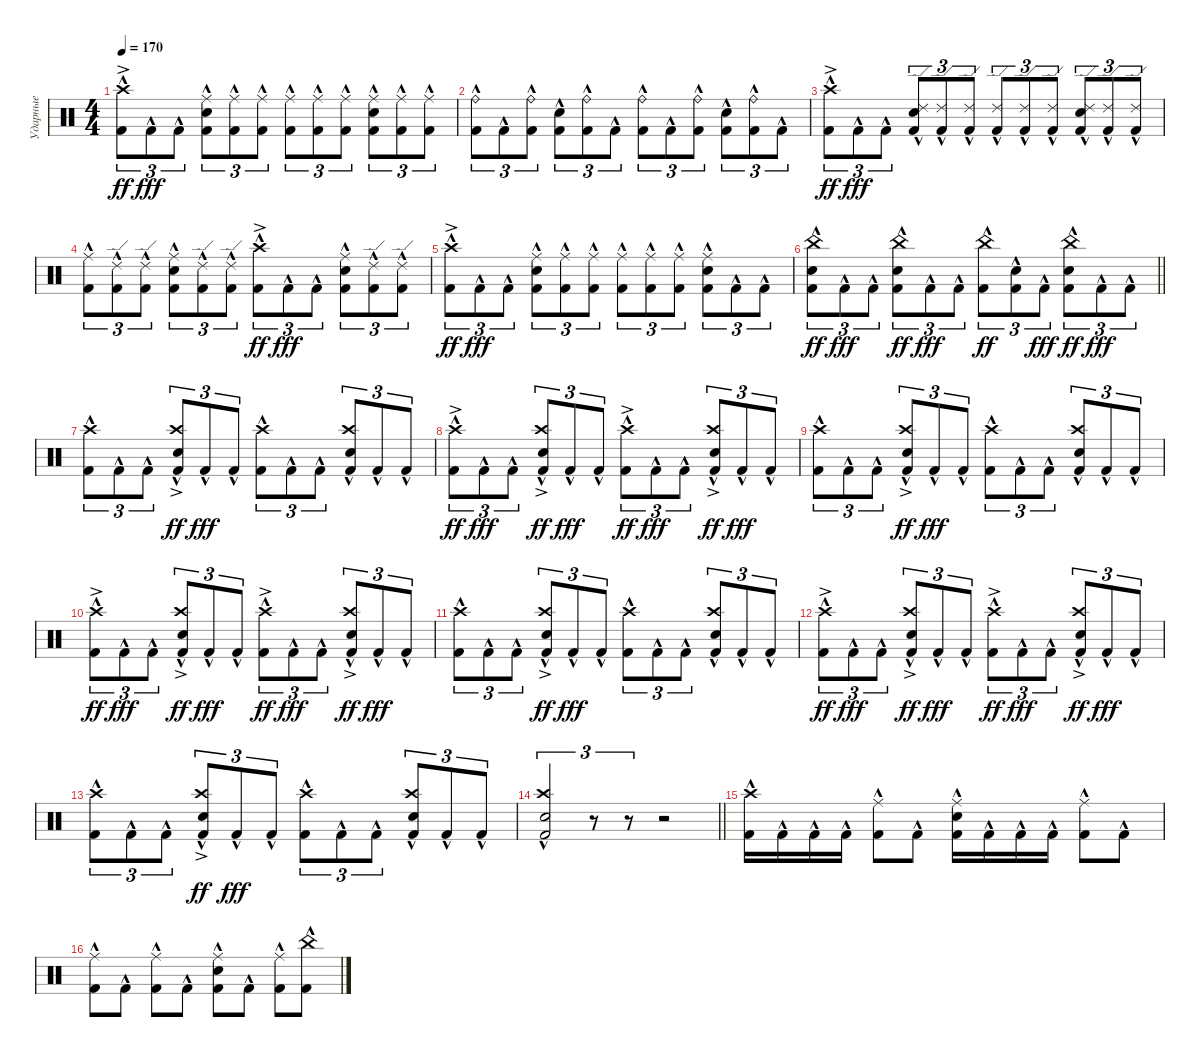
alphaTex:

\track ("Ударные" "Ударные") {instrument percussion}
\staff {score}
\articulation defaults
\ts (4 4)
\tempo 170
\clef neutral
\ks c
("Kick (hit) 2"{hac} "Crash high (hit)"{ac}).8{tu (3 2) dy ff} "Kick (hit) 2"{hac}.8{tu (3 2) dy fff} "Kick (hit) 2"{hac}.8{tu (3 2)} ("Kick (hit) 2"{hac} "Snare (hit) 2" "Ride (middle)"{hac}).8{tu (3 2)} ("Kick (hit) 2"{hac} "Ride (middle)"{hac}).8{tu (3 2)} ("Kick (hit) 2"{hac} "Ride (middle)"{hac}).8{tu (3 2)} ("Kick (hit) 2"{hac} "Ride (middle)"{hac}).8{tu (3 2)} ("Kick (hit) 2"{hac} "Ride (middle)"{hac}).8{tu (3 2)} ("Kick (hit) 2"{hac} "Ride (middle)"{hac}).8{tu (3 2)} ("Kick (hit) 2"{hac} "Snare (hit) 2" "Ride (middle)"{hac}).8{tu (3 2)} ("Kick (hit) 2"{hac} "Ride (middle)"{hac}).8{tu (3 2)} ("Kick (hit) 2"{hac} "Ride (middle)"{hac}).8{tu (3 2)} |
("Kick (hit) 2"{hac} "Ride (bell)"{hac}).8{tu (3 2)} "Kick (hit) 2"{hac}.8{tu (3 2)} ("Kick (hit) 2"{hac} "Ride (bell)"{hac}).8{tu (3 2)} ("Kick (hit) 2"{hac} "Snare (hit) 2").8{tu (3 2)} ("Kick (hit) 2"{hac} "Ride (bell)"{hac}).8{tu (3 2)} "Kick (hit) 2"{hac}.8{tu (3 2)} ("Kick (hit) 2"{hac} "Ride (bell)"{hac}).8{tu (3 2)} "Kick (hit) 2"{hac}.8{tu (3 2)} ("Kick (hit) 2"{hac} "Ride (bell)"{hac}).8{tu (3 2)} ("Kick (hit) 2"{hac} "Snare (hit) 2").8{tu (3 2)} ("Kick (hit) 2"{hac} "Ride (bell)"{hac}).8{tu (3 2)} "Kick (hit) 2"{hac}.8{tu (3 2)} |
("Kick (hit) 2"{hac} "Crash high (hit)"{ac}).8{tu (3 2) dy ff} "Kick (hit) 2"{hac}.8{tu (3 2) dy fff} "Kick (hit) 2"{hac}.8{tu (3 2)} ("Kick (hit) 2"{hac} "Snare (hit) 2" "Ride (edge) 2"{hac}).8{tu (3 2)} ("Kick (hit) 2"{hac} "Ride (edge) 2"{hac}).8{tu (3 2)} ("Kick (hit) 2"{hac} "Ride (edge) 2"{hac}).8{tu (3 2)} ("Kick (hit) 2"{hac} "Ride (edge) 2"{hac}).8{tu (3 2)} ("Kick (hit) 2"{hac} "Ride (edge) 2"{hac}).8{tu (3 2)} ("Kick (hit) 2"{hac} "Ride (edge) 2"{hac}).8{tu (3 2)} ("Kick (hit) 2"{hac} "Snare (hit) 2" "Ride (edge) 2"{hac}).8{tu (3 2)} ("Kick (hit) 2"{hac} "Ride (edge) 2"{hac}).8{tu (3 2)} ("Kick (hit) 2"{hac} "Ride (edge) 2"{hac}).8{tu (3 2)} |
("Kick (hit) 2"{hac} "Ride (middle)"{hac}).8{tu (3 2)} ("Kick (hit) 2"{hac} "Ride (edge) 2"{hac}).8{tu (3 2)} ("Kick (hit) 2"{hac} "Ride (edge) 2"{hac}).8{tu (3 2)} ("Kick (hit) 2"{hac} "Snare (hit) 2" "Ride (middle)"{hac}).8{tu (3 2)} ("Kick (hit) 2"{hac} "Ride (edge) 2"{hac}).8{tu (3 2)} ("Kick (hit) 2"{hac} "Ride (edge) 2"{hac}).8{tu (3 2)} ("Kick (hit) 2"{hac} "Crash high (hit)"{ac}).8{tu (3 2) dy ff} "Kick (hit) 2"{hac}.8{tu (3 2) dy fff} "Kick (hit) 2"{hac}.8{tu (3 2)} ("Kick (hit) 2"{hac} "Snare (hit) 2" "Ride (middle)").8{tu (3 2)} ("Kick (hit) 2"{hac} "Ride (edge) 2"{hac}).8{tu (3 2)} ("Kick (hit) 2"{hac} "Ride (edge) 2"{hac}).8{tu (3 2)} |
("Kick (hit) 2"{hac} "Crash high (hit)"{ac}).8{tu (3 2) dy ff} "Kick (hit) 2"{hac}.8{tu (3 2) dy fff} "Kick (hit) 2"{hac}.8{tu (3 2)} ("Kick (hit) 2"{hac} "Snare (hit) 2" "Ride (middle)"{hac}).8{tu (3 2)} ("Kick (hit) 2"{hac} "Ride (middle)"{hac}).8{tu (3 2)} ("Kick (hit) 2"{hac} "Ride (middle)"{hac}).8{tu (3 2)} ("Kick (hit) 2"{hac} "Ride (middle)"{hac}).8{tu (3 2)} ("Kick (hit) 2"{hac} "Ride (middle)"{hac}).8{tu (3 2)} ("Kick (hit) 2"{hac} "Ride (middle)"{hac}).8{tu (3 2)} ("Kick (hit) 2"{hac} "Snare (hit) 2" "Ride (middle)"{hac}).8{tu (3 2)} "Kick (hit) 2"{hac}.8{tu (3 2)} "Kick (hit) 2"{hac}.8{tu (3 2)} |
\barLineRight lightlight
("Kick (hit) 2"{hac} "Snare (hit) 2" "China (hit)").8{tu (3 2) dy ff} "Kick (hit) 2"{hac}.8{tu (3 2) dy fff} "Kick (hit) 2"{hac}.8{tu (3 2)} ("Kick (hit) 2"{hac} "Snare (hit) 2" "China (hit)").8{tu (3 2) dy ff} "Kick (hit) 2"{hac}.8{tu (3 2) dy fff} "Kick (hit) 2"{hac}.8{tu (3 2)} ("Kick (hit) 2"{hac} "China (hit)").8{tu (3 2) dy ff} ("Kick (hit) 2"{hac} "Snare (hit) 2").8{tu (3 2)} "Kick (hit) 2"{hac}.8{tu (3 2) dy fff} ("Kick (hit) 2"{hac} "Snare (hit) 2" "China (hit)").8{tu (3 2) dy ff} "Kick (hit) 2"{hac}.8{tu (3 2) dy fff} "Kick (hit) 2"{hac}.8{tu (3 2)} |
("Kick (hit) 2"{hac} "Crash high (hit)"{hac}).8{tu (3 2)} "Kick (hit) 2"{hac}.8{tu (3 2)} "Kick (hit) 2"{hac}.8{tu (3 2)} ("Kick (hit) 2"{hac} "Snare (hit) 2" "Crash high (hit)"{ac}).8{tu (3 2) dy ff} "Kick (hit) 2"{hac}.8{tu (3 2) dy fff} "Kick (hit) 2"{hac}.8{tu (3 2)} ("Kick (hit) 2"{hac} "Crash high (hit)").8{tu (3 2)} "Kick (hit) 2"{hac}.8{tu (3 2)} "Kick (hit) 2"{hac}.8{tu (3 2)} ("Kick (hit) 2"{hac} "Snare (hit) 2" "Crash high (hit)").8{tu (3 2)} "Kick (hit) 2"{hac}.8{tu (3 2)} "Kick (hit) 2"{hac}.8{tu (3 2)} |
("Kick (hit) 2"{hac} "Crash high (hit)"{ac}).8{tu (3 2) dy ff} "Kick (hit) 2"{hac}.8{tu (3 2) dy fff} "Kick (hit) 2"{hac}.8{tu (3 2)} ("Kick (hit) 2"{hac} "Snare (hit) 2" "Crash high (hit)"{ac}).8{tu (3 2) dy ff} "Kick (hit) 2"{hac}.8{tu (3 2) dy fff} "Kick (hit) 2"{hac}.8{tu (3 2)} ("Kick (hit) 2"{hac} "Crash high (hit)"{ac}).8{tu (3 2) dy ff} "Kick (hit) 2"{hac}.8{tu (3 2) dy fff} "Kick (hit) 2"{hac}.8{tu (3 2)} ("Kick (hit) 2"{hac} "Snare (hit) 2" "Crash high (hit)"{ac}).8{tu (3 2) dy ff} "Kick (hit) 2"{hac}.8{tu (3 2) dy fff} "Kick (hit) 2"{hac}.8{tu (3 2)} |
("Kick (hit) 2"{hac} "Crash high (hit)"{hac}).8{tu (3 2)} "Kick (hit) 2"{hac}.8{tu (3 2)} "Kick (hit) 2"{hac}.8{tu (3 2)} ("Kick (hit) 2"{hac} "Snare (hit) 2" "Crash high (hit)"{ac}).8{tu (3 2) dy ff} "Kick (hit) 2"{hac}.8{tu (3 2) dy fff} "Kick (hit) 2"{hac}.8{tu (3 2)} ("Kick (hit) 2"{hac} "Crash high (hit)").8{tu (3 2)} "Kick (hit) 2"{hac}.8{tu (3 2)} "Kick (hit) 2"{hac}.8{tu (3 2)} ("Kick (hit) 2"{hac} "Snare (hit) 2" "Crash high (hit)").8{tu (3 2)} "Kick (hit) 2"{hac}.8{tu (3 2)} "Kick (hit) 2"{hac}.8{tu (3 2)} |
("Kick (hit) 2"{hac} "Crash high (hit)"{ac}).8{tu (3 2) dy ff} "Kick (hit) 2"{hac}.8{tu (3 2) dy fff} "Kick (hit) 2"{hac}.8{tu (3 2)} ("Kick (hit) 2"{hac} "Snare (hit) 2" "Crash high (hit)"{ac}).8{tu (3 2) dy ff} "Kick (hit) 2"{hac}.8{tu (3 2) dy fff} "Kick (hit) 2"{hac}.8{tu (3 2)} ("Kick (hit) 2"{hac} "Crash high (hit)"{ac}).8{tu (3 2) dy ff} "Kick (hit) 2"{hac}.8{tu (3 2) dy fff} "Kick (hit) 2"{hac}.8{tu (3 2)} ("Kick (hit) 2"{hac} "Snare (hit) 2" "Crash high (hit)"{ac}).8{tu (3 2) dy ff} "Kick (hit) 2"{hac}.8{tu (3 2) dy fff} "Kick (hit) 2"{hac}.8{tu (3 2)} |
("Kick (hit) 2"{hac} "Crash high (hit)"{hac}).8{tu (3 2)} "Kick (hit) 2"{hac}.8{tu (3 2)} "Kick (hit) 2"{hac}.8{tu (3 2)} ("Kick (hit) 2"{hac} "Snare (hit) 2" "Crash high (hit)"{ac}).8{tu (3 2) dy ff} "Kick (hit) 2"{hac}.8{tu (3 2) dy fff} "Kick (hit) 2"{hac}.8{tu (3 2)} ("Kick (hit) 2"{hac} "Crash high (hit)").8{tu (3 2)} "Kick (hit) 2"{hac}.8{tu (3 2)} "Kick (hit) 2"{hac}.8{tu (3 2)} ("Kick (hit) 2"{hac} "Snare (hit) 2" "Crash high (hit)").8{tu (3 2)} "Kick (hit) 2"{hac}.8{tu (3 2)} "Kick (hit) 2"{hac}.8{tu (3 2)} |
("Kick (hit) 2"{hac} "Crash high (hit)"{ac}).8{tu (3 2) dy ff} "Kick (hit) 2"{hac}.8{tu (3 2) dy fff} "Kick (hit) 2"{hac}.8{tu (3 2)} ("Kick (hit) 2"{hac} "Snare (hit) 2" "Crash high (hit)"{ac}).8{tu (3 2) dy ff} "Kick (hit) 2"{hac}.8{tu (3 2) dy fff} "Kick (hit) 2"{hac}.8{tu (3 2)} ("Kick (hit) 2"{hac} "Crash high (hit)"{ac}).8{tu (3 2) dy ff} "Kick (hit) 2"{hac}.8{tu (3 2) dy fff} "Kick (hit) 2"{hac}.8{tu (3 2)} ("Kick (hit) 2"{hac} "Snare (hit) 2" "Crash high (hit)"{ac}).8{tu (3 2) dy ff} "Kick (hit) 2"{hac}.8{tu (3 2) dy fff} "Kick (hit) 2"{hac}.8{tu (3 2)} |
("Kick (hit) 2"{hac} "Crash high (hit)"{hac}).8{tu (3 2)} "Kick (hit) 2"{hac}.8{tu (3 2)} "Kick (hit) 2"{hac}.8{tu (3 2)} ("Kick (hit) 2"{hac} "Snare (hit) 2" "Crash high (hit)"{ac}).8{tu (3 2) dy ff} "Kick (hit) 2"{hac}.8{tu (3 2) dy fff} "Kick (hit) 2"{hac}.8{tu (3 2)} ("Kick (hit) 2"{hac} "Crash high (hit)").8{tu (3 2)} "Kick (hit) 2"{hac}.8{tu (3 2)} "Kick (hit) 2"{hac}.8{tu (3 2)} ("Kick (hit) 2"{hac} "Snare (hit) 2" "Crash high (hit)").8{tu (3 2)} "Kick (hit) 2"{hac}.8{tu (3 2)} "Kick (hit) 2"{hac}.8{tu (3 2)} |
\barLineRight lightlight
("Kick (hit) 2"{hac} "Snare (hit) 2" "Crash high (hit)"{hac}).2{tu (3 2)} r.8{tu (3 2)} r.8{tu (3 2)} r.2 |
("Kick (hit) 2"{hac} "Crash high (hit)").16 "Kick (hit) 2"{hac}.16 "Kick (hit) 2"{hac}.16 "Kick (hit) 2"{hac}.16 ("Ride (middle)"{hac} "Kick (hit) 2"{hac}).8 "Kick (hit) 2"{hac}.8 ("Kick (hit) 2"{hac} "Ride (middle)"{hac} "Snare (hit) 2").16 "Kick (hit) 2"{hac}.16 "Kick (hit) 2"{hac}.16 "Kick (hit) 2"{hac}.16 ("Kick (hit) 2"{hac} "Ride (middle)"{hac}).8 "Kick (hit) 2"{hac}.8 |
("Ride (middle)"{hac} "Kick (hit) 2"{hac}).8 "Kick (hit) 2"{hac}.8 ("Kick (hit) 2"{hac} "Ride (middle)"{hac}).8 "Kick (hit) 2"{hac}.8 ("Kick (hit) 2"{hac} "Ride (middle)"{hac} "Snare (hit) 2").8 "Kick (hit) 2"{hac}.8 ("Kick (hit) 2"{hac} "Ride (middle)"{hac}).8 ("China (hit)"{hac} "Kick (hit) 2"{hac}).8
